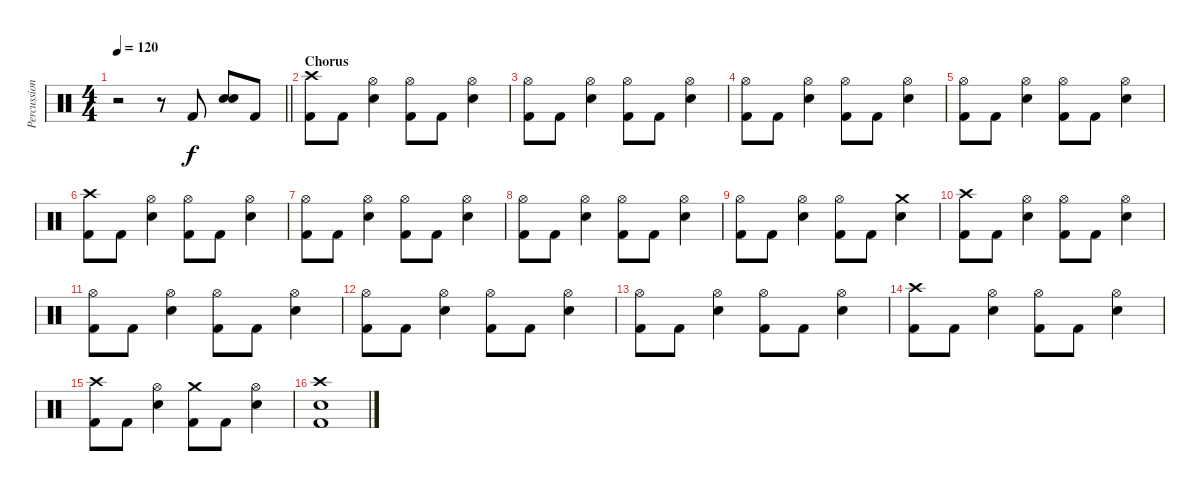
\track ("Percussion" "Percussion") {instrument percussion}
\staff {score}
\articulation defaults
\ts (4 4)
\tempo 120
\clef neutral
\barLineRight lightlight
\ks c
r.2{dy f} r.8 "Kick (hit) 2".8 ("Electric Snare (hit)" "Electric Snare (hit)").8 "Kick (hit) 2".8 |
\section ("" "Chorus")
("Crash high (hit)" "Kick (hit) 2").8 "Kick (hit) 2".8 ("Hi-Hat (open)" "Electric Snare (hit)").4 ("Hi-Hat (open)" "Kick (hit) 2").8 "Kick (hit) 2".8 ("Hi-Hat (open)" "Electric Snare (hit)").4 |
("Hi-Hat (open)" "Kick (hit) 2").8 "Kick (hit) 2".8 ("Hi-Hat (open)" "Electric Snare (hit)").4 ("Hi-Hat (open)" "Kick (hit) 2").8 "Kick (hit) 2".8 ("Hi-Hat (open)" "Electric Snare (hit)").4 |
("Hi-Hat (open)" "Kick (hit) 2").8 "Kick (hit) 2".8 ("Hi-Hat (open)" "Electric Snare (hit)").4 ("Hi-Hat (open)" "Kick (hit) 2").8 "Kick (hit) 2".8 ("Hi-Hat (open)" "Electric Snare (hit)").4 |
("Hi-Hat (open)" "Kick (hit) 2").8 "Kick (hit) 2".8 ("Hi-Hat (open)" "Electric Snare (hit)").4 ("Hi-Hat (open)" "Kick (hit) 2").8 "Kick (hit) 2".8 ("Hi-Hat (open)" "Electric Snare (hit)").4 |
("Crash high (hit)" "Kick (hit) 2").8 "Kick (hit) 2".8 ("Hi-Hat (open)" "Electric Snare (hit)").4 ("Hi-Hat (open)" "Kick (hit) 2").8 "Kick (hit) 2".8 ("Hi-Hat (open)" "Electric Snare (hit)").4 |
("Hi-Hat (open)" "Kick (hit) 2").8 "Kick (hit) 2".8 ("Hi-Hat (open)" "Electric Snare (hit)").4 ("Hi-Hat (open)" "Kick (hit) 2").8 "Kick (hit) 2".8 ("Hi-Hat (open)" "Electric Snare (hit)").4 |
("Hi-Hat (open)" "Kick (hit) 2").8 "Kick (hit) 2".8 ("Hi-Hat (open)" "Electric Snare (hit)").4 ("Hi-Hat (open)" "Kick (hit) 2").8 "Kick (hit) 2".8 ("Hi-Hat (open)" "Electric Snare (hit)").4 |
("Hi-Hat (open)" "Kick (hit) 2").8 "Kick (hit) 2".8 ("Hi-Hat (open)" "Electric Snare (hit)").4 ("Hi-Hat (open)" "Kick (hit) 2").8 "Kick (hit) 2".8 ("Crash medium (hit)" "Electric Snare (hit)").4 |
("Crash high (hit)" "Kick (hit) 2").8 "Kick (hit) 2".8 ("Hi-Hat (open)" "Electric Snare (hit)").4 ("Hi-Hat (open)" "Kick (hit) 2").8 "Kick (hit) 2".8 ("Hi-Hat (open)" "Electric Snare (hit)").4 |
("Hi-Hat (open)" "Kick (hit) 2").8 "Kick (hit) 2".8 ("Hi-Hat (open)" "Electric Snare (hit)").4 ("Hi-Hat (open)" "Kick (hit) 2").8 "Kick (hit) 2".8 ("Hi-Hat (open)" "Electric Snare (hit)").4 |
("Hi-Hat (open)" "Kick (hit) 2").8 "Kick (hit) 2".8 ("Hi-Hat (open)" "Electric Snare (hit)").4 ("Hi-Hat (open)" "Kick (hit) 2").8 "Kick (hit) 2".8 ("Hi-Hat (open)" "Electric Snare (hit)").4 |
("Hi-Hat (open)" "Kick (hit) 2").8 "Kick (hit) 2".8 ("Hi-Hat (open)" "Electric Snare (hit)").4 ("Hi-Hat (open)" "Kick (hit) 2").8 "Kick (hit) 2".8 ("Hi-Hat (open)" "Electric Snare (hit)").4 |
("Crash high (hit)" "Kick (hit) 2").8 "Kick (hit) 2".8 ("Hi-Hat (open)" "Electric Snare (hit)").4 ("Hi-Hat (open)" "Kick (hit) 2").8 "Kick (hit) 2".8 ("Hi-Hat (open)" "Electric Snare (hit)").4 |
("Crash high (hit)" "Kick (hit) 2").8 "Kick (hit) 2".8 ("Hi-Hat (open)" "Electric Snare (hit)").4 ("Crash medium (hit)" "Kick (hit) 2").8 "Kick (hit) 2".8 ("Hi-Hat (open)" "Electric Snare (hit)").4 |
("Crash high (hit)" "Electric Snare (hit)" "Kick (hit) 2").1
